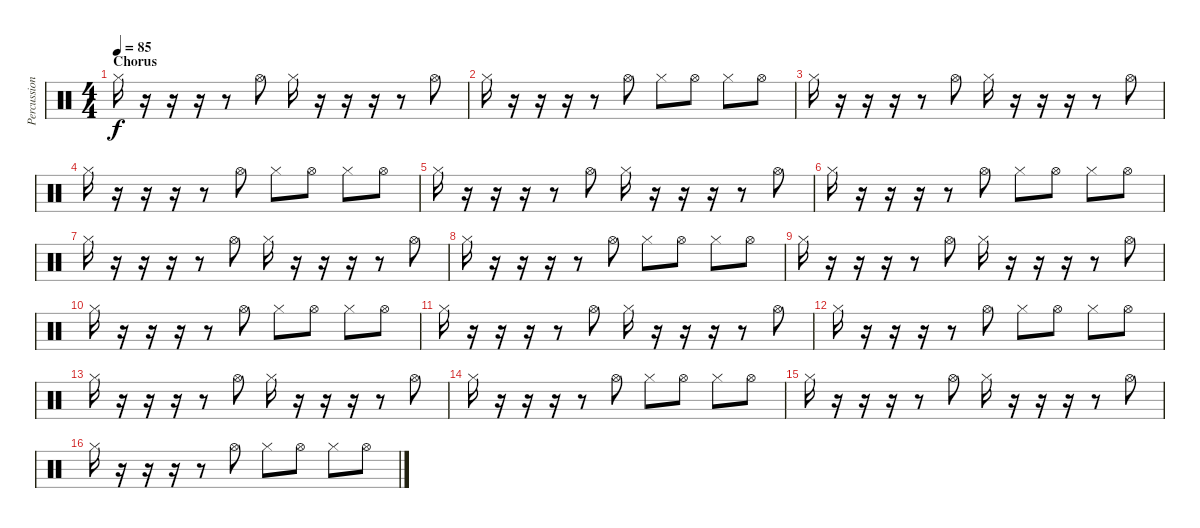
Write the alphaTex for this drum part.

\track ("Percussion II . Jeremiah Green" "Percussion") {instrument percussion}
\staff {score}
\articulation defaults
\ts (4 4)
\section ("" "Chorus")
\tempo 85
\clef neutral
\ks c "Hi-Hat (closed)".16{dy f}
r.16 r.16 r.16 r.8 "Hi-Hat (open)".8 "Hi-Hat (closed)".16 r.16 r.16 r.16 r.8 "Hi-Hat (open)".8 |
"Hi-Hat (closed)".16 r.16 r.16 r.16 r.8 "Hi-Hat (open)".8 "Hi-Hat (closed)".8 "Hi-Hat (open)".8 "Hi-Hat (closed)".8 "Hi-Hat (open)".8 |
"Hi-Hat (closed)".16 r.16 r.16 r.16 r.8 "Hi-Hat (open)".8 "Hi-Hat (closed)".16 r.16 r.16 r.16 r.8 "Hi-Hat (open)".8 |
"Hi-Hat (closed)".16 r.16 r.16 r.16 r.8 "Hi-Hat (open)".8 "Hi-Hat (closed)".8 "Hi-Hat (open)".8 "Hi-Hat (closed)".8 "Hi-Hat (open)".8 |
"Hi-Hat (closed)".16 r.16 r.16 r.16 r.8 "Hi-Hat (open)".8 "Hi-Hat (closed)".16 r.16 r.16 r.16 r.8 "Hi-Hat (open)".8 |
"Hi-Hat (closed)".16 r.16 r.16 r.16 r.8 "Hi-Hat (open)".8 "Hi-Hat (closed)".8 "Hi-Hat (open)".8 "Hi-Hat (closed)".8 "Hi-Hat (open)".8 |
"Hi-Hat (closed)".16 r.16 r.16 r.16 r.8 "Hi-Hat (open)".8 "Hi-Hat (closed)".16 r.16 r.16 r.16 r.8 "Hi-Hat (open)".8 |
"Hi-Hat (closed)".16 r.16 r.16 r.16 r.8 "Hi-Hat (open)".8 "Hi-Hat (closed)".8 "Hi-Hat (open)".8 "Hi-Hat (closed)".8 "Hi-Hat (open)".8 |
"Hi-Hat (closed)".16 r.16 r.16 r.16 r.8 "Hi-Hat (open)".8 "Hi-Hat (closed)".16 r.16 r.16 r.16 r.8 "Hi-Hat (open)".8 |
"Hi-Hat (closed)".16 r.16 r.16 r.16 r.8 "Hi-Hat (open)".8 "Hi-Hat (closed)".8 "Hi-Hat (open)".8 "Hi-Hat (closed)".8 "Hi-Hat (open)".8 |
"Hi-Hat (closed)".16 r.16 r.16 r.16 r.8 "Hi-Hat (open)".8 "Hi-Hat (closed)".16 r.16 r.16 r.16 r.8 "Hi-Hat (open)".8 |
"Hi-Hat (closed)".16 r.16 r.16 r.16 r.8 "Hi-Hat (open)".8 "Hi-Hat (closed)".8 "Hi-Hat (open)".8 "Hi-Hat (closed)".8 "Hi-Hat (open)".8 |
"Hi-Hat (closed)".16 r.16 r.16 r.16 r.8 "Hi-Hat (open)".8 "Hi-Hat (closed)".16 r.16 r.16 r.16 r.8 "Hi-Hat (open)".8 |
"Hi-Hat (closed)".16 r.16 r.16 r.16 r.8 "Hi-Hat (open)".8 "Hi-Hat (closed)".8 "Hi-Hat (open)".8 "Hi-Hat (closed)".8 "Hi-Hat (open)".8 |
"Hi-Hat (closed)".16 r.16 r.16 r.16 r.8 "Hi-Hat (open)".8 "Hi-Hat (closed)".16 r.16 r.16 r.16 r.8 "Hi-Hat (open)".8 |
"Hi-Hat (closed)".16 r.16 r.16 r.16 r.8 "Hi-Hat (open)".8 "Hi-Hat (closed)".8 "Hi-Hat (open)".8 "Hi-Hat (closed)".8 "Hi-Hat (open)".8
